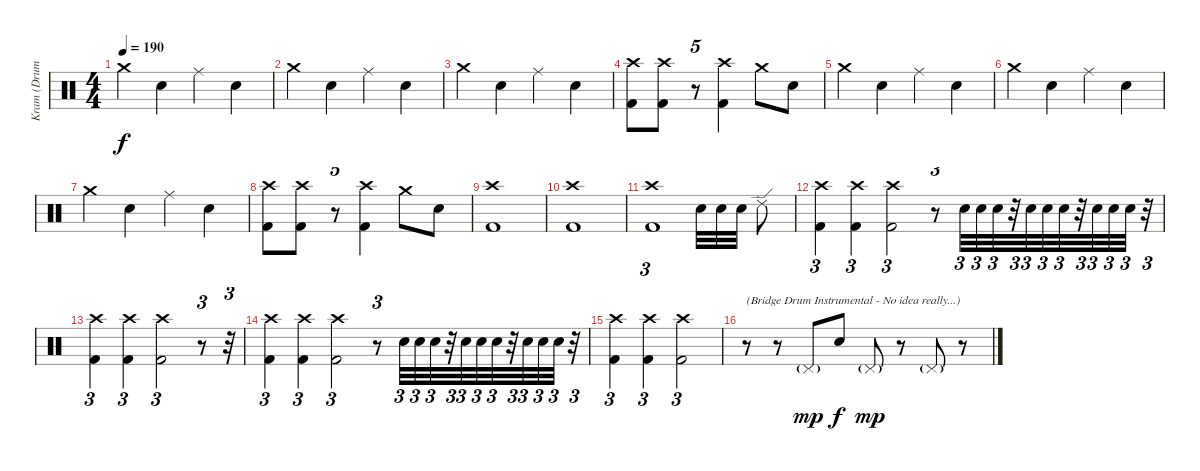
\track ("Kram (Drums)" "Kram (Drum") {instrument percussion}
\staff {score}
\articulation defaults
\ts (4 4)
\tempo 190
\clef neutral
\ks c "Crash medium (hit)".4{dy f} "Snare (hit) 2".4 "Ride (middle)".4 "Snare (hit) 2".4
|
"Crash medium (hit)".4 "Snare (hit) 2".4 "Ride (middle)".4 "Snare (hit) 2".4 |
"Crash medium (hit)".4 "Snare (hit) 2".4 "Ride (middle)".4 "Snare (hit) 2".4 |
("Kick (hit) 2" "Crash high (hit)").8 ("Kick (hit) 2" "Crash high (hit)").8 r.8{tu (5 4)} ("Kick (hit) 2" "Crash high (hit)").4 "Crash medium (hit)".8 "Snare (hit) 2".8 |
"Crash medium (hit)".4 "Snare (hit) 2".4 "Ride (middle)".4 "Snare (hit) 2".4 |
"Crash medium (hit)".4 "Snare (hit) 2".4 "Ride (middle)".4 "Snare (hit) 2".4 |
"Crash medium (hit)".4 "Snare (hit) 2".4 "Ride (middle)".4 "Snare (hit) 2".4 |
("Kick (hit) 2" "Crash high (hit)").8 ("Kick (hit) 2" "Crash high (hit)").8 r.8{tu (5 4)} ("Kick (hit) 2" "Crash high (hit)").4 "Crash medium (hit)".8 "Snare (hit) 2".8 |
("Kick (hit) 2" "Crash high (hit)").1 |
("Kick (hit) 2" "Crash high (hit)").1 |
("Kick (hit) 2" "Crash high (hit)").1{tu (3 2)} "Snare (hit) 2".32 "Snare (hit) 2".32 "Snare (hit) 2".32 "Ride (edge) 2".8 |
("Kick (hit) 2" "Crash high (hit)").4{tu (3 2)} ("Kick (hit) 2" "Crash high (hit)").4{tu (3 2)} ("Kick (hit) 2" "Crash high (hit)").2{tu (3 2)} r.8{tu (3 2)} "Snare (hit) 2".32{tu (3 2)} "Snare (hit) 2".32{tu (3 2)} "Snare (hit) 2".32{tu (3 2)} r.32{tu (3 2)} "Snare (hit) 2".32{tu (3 2)} "Snare (hit) 2".32{tu (3 2)} "Snare (hit) 2".32{tu (3 2)} r.32{tu (3 2)} "Snare (hit) 2".32{tu (3 2)} "Snare (hit) 2".32{tu (3 2)} "Snare (hit) 2".32{tu (3 2)} r.32{tu (3 2)} |
("Kick (hit) 2" "Crash high (hit)").4{tu (3 2)} ("Kick (hit) 2" "Crash high (hit)").4{tu (3 2)} ("Kick (hit) 2" "Crash high (hit)").2{tu (3 2)} r.8{tu (3 2)} r.32{tu (3 2)} |
("Kick (hit) 2" "Crash high (hit)").4{tu (3 2)} ("Kick (hit) 2" "Crash high (hit)").4{tu (3 2)} ("Kick (hit) 2" "Crash high (hit)").2{tu (3 2)} r.8{tu (3 2)} "Snare (hit) 2".32{tu (3 2)} "Snare (hit) 2".32{tu (3 2)} "Snare (hit) 2".32{tu (3 2)} r.32{tu (3 2)} "Snare (hit) 2".32{tu (3 2)} "Snare (hit) 2".32{tu (3 2)} "Snare (hit) 2".32{tu (3 2)} r.32{tu (3 2)} "Snare (hit) 2".32{tu (3 2)} "Snare (hit) 2".32{tu (3 2)} "Snare (hit) 2".32{tu (3 2)} r.32{tu (3 2)} |
("Kick (hit) 2" "Crash high (hit)").4{tu (3 2)} ("Kick (hit) 2" "Crash high (hit)").4{tu (3 2)} ("Kick (hit) 2" "Crash high (hit)").2{tu (3 2)} |
r.8{txt "(Bridge Drum Instrumental - No idea really...)"} r.8 "Pedal Hi-Hat (hit)"{g}.8{dy mp volume 4} "Electric Snare (hit)".8{dy f} "Pedal Hi-Hat (hit)"{g}.8{dy mp} r.8 "Pedal Hi-Hat (hit)"{g}.8 r.8
